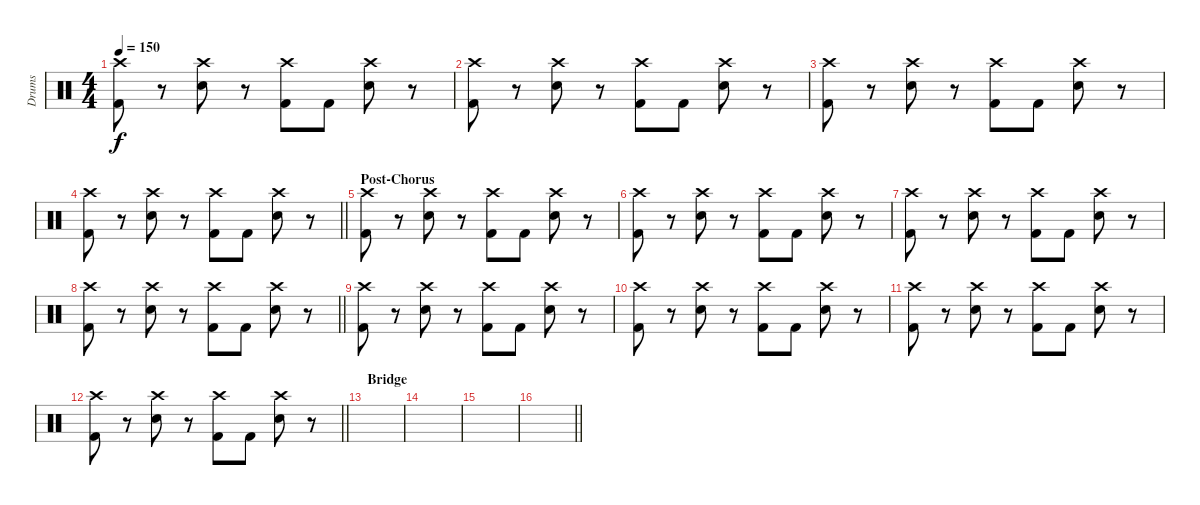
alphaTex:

\track ("Drums" "Drums") {instrument percussion}
\staff {score}
\articulation defaults
\ts (4 4)
\tempo 150
\clef neutral
\ks c
("Crash high (hit)" "Kick (hit) 2").8{dy f} r.8 ("Crash high (hit)" "Snare (hit) 2").8 r.8 ("Crash high (hit)" "Kick (hit) 2").8 "Kick (hit) 2".8 ("Crash high (hit)" "Snare (hit) 2").8 r.8 |
("Crash high (hit)" "Kick (hit) 2").8 r.8 ("Crash high (hit)" "Snare (hit) 2").8 r.8 ("Crash high (hit)" "Kick (hit) 2").8 "Kick (hit) 2".8 ("Crash high (hit)" "Snare (hit) 2").8 r.8 |
("Crash high (hit)" "Kick (hit) 2").8 r.8 ("Crash high (hit)" "Snare (hit) 2").8 r.8 ("Crash high (hit)" "Kick (hit) 2").8 "Kick (hit) 2".8 ("Crash high (hit)" "Snare (hit) 2").8 r.8 |
\barLineRight lightlight
("Crash high (hit)" "Kick (hit) 2").8 r.8 ("Crash high (hit)" "Snare (hit) 2").8 r.8 ("Crash high (hit)" "Kick (hit) 2").8 "Kick (hit) 2".8 ("Crash high (hit)" "Snare (hit) 2").8 r.8 |
\section ("" "Post-Chorus")
("Crash high (hit)" "Kick (hit) 2").8 r.8 ("Crash high (hit)" "Snare (hit) 2").8 r.8 ("Crash high (hit)" "Kick (hit) 2").8 "Kick (hit) 2".8 ("Crash high (hit)" "Snare (hit) 2").8 r.8 |
("Crash high (hit)" "Kick (hit) 2").8 r.8 ("Crash high (hit)" "Snare (hit) 2").8 r.8 ("Crash high (hit)" "Kick (hit) 2").8 "Kick (hit) 2".8 ("Crash high (hit)" "Snare (hit) 2").8 r.8 |
("Crash high (hit)" "Kick (hit) 2").8 r.8 ("Crash high (hit)" "Snare (hit) 2").8 r.8 ("Crash high (hit)" "Kick (hit) 2").8 "Kick (hit) 2".8 ("Crash high (hit)" "Snare (hit) 2").8 r.8 |
\barLineRight lightlight
("Crash high (hit)" "Kick (hit) 2").8 r.8 ("Crash high (hit)" "Snare (hit) 2").8 r.8 ("Crash high (hit)" "Kick (hit) 2").8 "Kick (hit) 2".8 ("Crash high (hit)" "Snare (hit) 2").8 r.8 |
("Crash high (hit)" "Kick (hit) 2").8 r.8 ("Crash high (hit)" "Snare (hit) 2").8 r.8 ("Crash high (hit)" "Kick (hit) 2").8 "Kick (hit) 2".8 ("Crash high (hit)" "Snare (hit) 2").8 r.8 |
("Crash high (hit)" "Kick (hit) 2").8 r.8 ("Crash high (hit)" "Snare (hit) 2").8 r.8 ("Crash high (hit)" "Kick (hit) 2").8 "Kick (hit) 2".8 ("Crash high (hit)" "Snare (hit) 2").8 r.8 |
("Crash high (hit)" "Kick (hit) 2").8 r.8 ("Crash high (hit)" "Snare (hit) 2").8 r.8 ("Crash high (hit)" "Kick (hit) 2").8 "Kick (hit) 2".8 ("Crash high (hit)" "Snare (hit) 2").8 r.8 |
\barLineRight lightlight
("Crash high (hit)" "Kick (hit) 2").8 r.8 ("Crash high (hit)" "Snare (hit) 2").8 r.8 ("Crash high (hit)" "Kick (hit) 2").8 "Kick (hit) 2".8 ("Crash high (hit)" "Snare (hit) 2").8 r.8 |
\section ("" "Bridge")
|
|
|
\barLineRight lightlight
